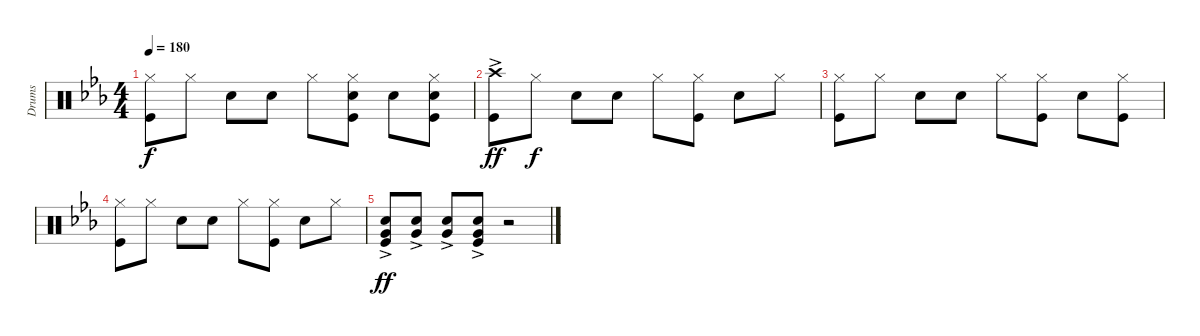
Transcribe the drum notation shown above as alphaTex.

\track ("Drums" "Drums") {instrument percussion}
\staff {score}
\articulation defaults
\ts (4 4)
\tempo 180
\clef neutral
\ks cminor
("Hi-Hat (closed)" "Kick (hit)").8{dy f} "Hi-Hat (closed)".8 "Snare (hit) 2".8 "Snare (hit) 2".8 "Hi-Hat (closed)".8 ("Hi-Hat (closed)" "Kick (hit)" "Snare (hit) 2").8 "Snare (hit) 2".8 ("Snare (hit) 2" "Kick (hit)" "Hi-Hat (closed)").8 |
("Crash high (hit)"{ac} "Kick (hit)").8{dy ff} "Hi-Hat (closed)".8{dy f} "Snare (hit) 2".8 "Snare (hit) 2".8 "Hi-Hat (closed)".8 ("Hi-Hat (closed)" "Kick (hit)").8 "Snare (hit) 2".8 "Hi-Hat (closed)".8 |
("Hi-Hat (closed)" "Kick (hit)").8 "Hi-Hat (closed)".8 "Snare (hit) 2".8 "Snare (hit) 2".8 "Hi-Hat (closed)".8 ("Hi-Hat (closed)" "Kick (hit)").8 "Snare (hit) 2".8 ("Hi-Hat (closed)" "Kick (hit)").8 |
("Hi-Hat (closed)" "Kick (hit)").8 "Hi-Hat (closed)".8 "Snare (hit) 2".8 "Snare (hit) 2".8 "Hi-Hat (closed)".8 ("Hi-Hat (closed)" "Kick (hit)").8 "Snare (hit) 2".8 "Hi-Hat (closed)".8 |
("Kick (hit)"{ac} "Snare (hit) 2"{ac} "Very Low Tom (hit)"{ac}).8{dy ff} ("Snare (hit) 2"{ac} "Very Low Tom (hit)"{ac}).8 ("Very Low Tom (hit)"{ac} "Snare (hit) 2"{ac}).8 ("Snare (hit) 2"{ac} "Kick (hit)"{ac} "Very Low Tom (hit)"{ac}).8 r.2
